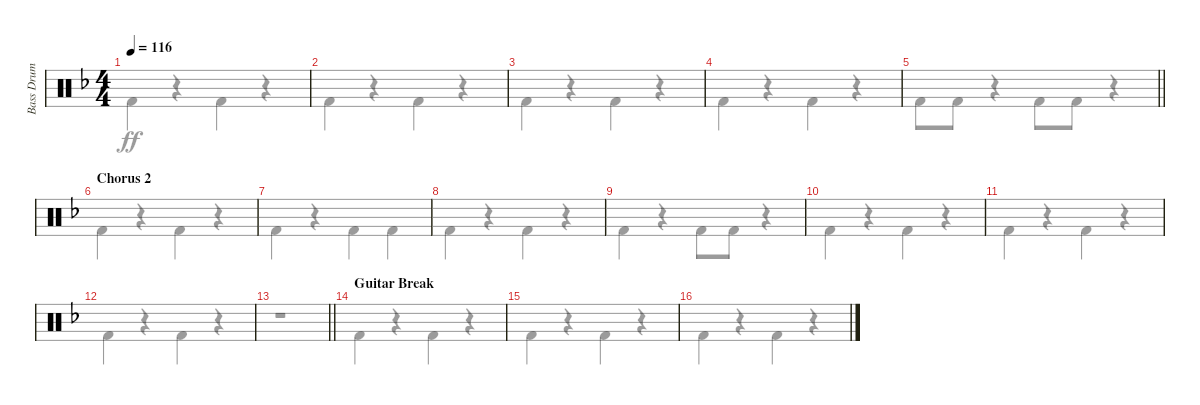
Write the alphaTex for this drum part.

\track ("Bass Drum" "Bass Drum") {instrument percussion}
\staff {score}
\articulation defaults
\voice
\ts (4 4)
\tempo 116
\clef neutral
\ks f
|
|
|
|
\barLineRight lightlight
|
\section ("" "Chorus 2")
|
|
|
|
|
|
|
\barLineRight lightlight
|
\section ("" "Guitar Break")
|
|
\voice
\clef neutral
\ks f "Kick (hit) 2".4{dy ff}
r.4 "Kick (hit) 2".4 r.4 |
"Kick (hit) 2".4 r.4 "Kick (hit) 2".4 r.4 |
"Kick (hit) 2".4 r.4 "Kick (hit) 2".4 r.4 |
"Kick (hit) 2".4 r.4 "Kick (hit) 2".4 r.4 |
\barLineRight lightlight "Kick (hit) 2".8 "Kick (hit) 2".8
r.4 "Kick (hit) 2".8 "Kick (hit) 2".8 r.4 |
"Kick (hit) 2".4 r.4 "Kick (hit) 2".4 r.4 |
"Kick (hit) 2".4 r.4 "Kick (hit) 2".4 "Kick (hit) 2".4 |
"Kick (hit) 2".4 r.4 "Kick (hit) 2".4 r.4 |
"Kick (hit) 2".4 r.4 "Kick (hit) 2".8 "Kick (hit) 2".8 r.4 |
"Kick (hit) 2".4 r.4 "Kick (hit) 2".4 r.4 |
"Kick (hit) 2".4 r.4 "Kick (hit) 2".4 r.4 |
"Kick (hit) 2".4 r.4 "Kick (hit) 2".4 r.4 |
\barLineRight lightlight
r.1 |
"Kick (hit) 2".4 r.4 "Kick (hit) 2".4 r.4 |
"Kick (hit) 2".4 r.4 "Kick (hit) 2".4 r.4 |
"Kick (hit) 2".4 r.4 "Kick (hit) 2".4 r.4
